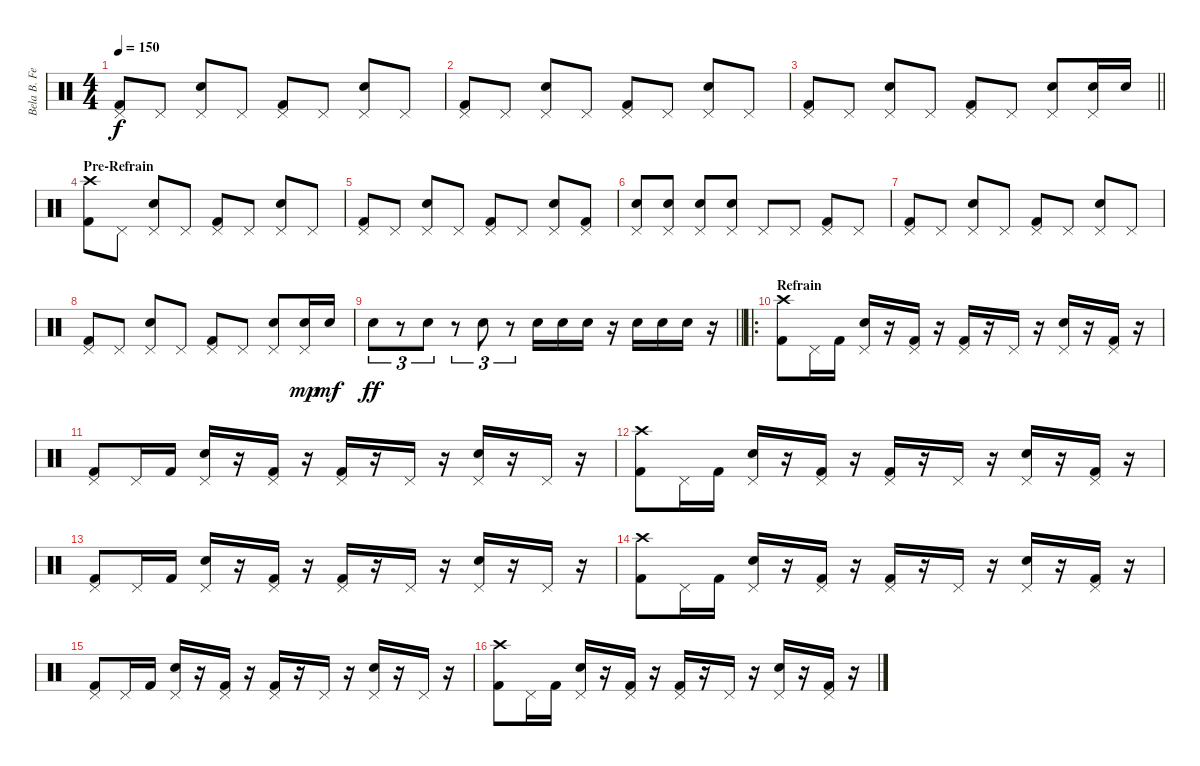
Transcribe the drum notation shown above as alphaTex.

\track ("Bela B. Felsenheimer" "Bela B. Fe") {instrument percussion}
\staff {score}
\articulation defaults
\ts (4 4)
\tempo 150
\clef neutral
\ks c
("Pedal Hi-Hat (hit)" "Kick (hit) 2").8{dy f} "Pedal Hi-Hat (hit)".8 ("Pedal Hi-Hat (hit)" "Snare (hit) 2").8 "Pedal Hi-Hat (hit)".8 ("Pedal Hi-Hat (hit)" "Kick (hit) 2").8 "Pedal Hi-Hat (hit)".8 ("Pedal Hi-Hat (hit)" "Snare (hit) 2").8 "Pedal Hi-Hat (hit)".8 |
("Pedal Hi-Hat (hit)" "Kick (hit) 2").8 "Pedal Hi-Hat (hit)".8 ("Pedal Hi-Hat (hit)" "Snare (hit) 2").8 "Pedal Hi-Hat (hit)".8 ("Pedal Hi-Hat (hit)" "Kick (hit) 2").8 "Pedal Hi-Hat (hit)".8 ("Pedal Hi-Hat (hit)" "Snare (hit) 2").8 "Pedal Hi-Hat (hit)".8 |
\barLineRight lightlight
("Pedal Hi-Hat (hit)" "Kick (hit) 2").8 "Pedal Hi-Hat (hit)".8 ("Pedal Hi-Hat (hit)" "Snare (hit) 2").8 "Pedal Hi-Hat (hit)".8 ("Pedal Hi-Hat (hit)" "Kick (hit) 2").8 "Pedal Hi-Hat (hit)".8 ("Pedal Hi-Hat (hit)" "Snare (hit) 2").8 ("Pedal Hi-Hat (hit)" "Snare (hit) 2").16 "Snare (hit) 2".16 |
\section ("" "Pre-Refrain")
("Crash high (hit)" "Kick (hit) 2").8 "Pedal Hi-Hat (hit)".8 ("Pedal Hi-Hat (hit)" "Snare (hit) 2").8 "Pedal Hi-Hat (hit)".8 ("Pedal Hi-Hat (hit)" "Kick (hit) 2").8 "Pedal Hi-Hat (hit)".8 ("Pedal Hi-Hat (hit)" "Snare (hit) 2").8 "Pedal Hi-Hat (hit)".8 |
("Pedal Hi-Hat (hit)" "Kick (hit) 2").8 "Pedal Hi-Hat (hit)".8 ("Pedal Hi-Hat (hit)" "Snare (hit) 2").8 "Pedal Hi-Hat (hit)".8 ("Pedal Hi-Hat (hit)" "Kick (hit) 2").8 "Pedal Hi-Hat (hit)".8 ("Pedal Hi-Hat (hit)" "Snare (hit) 2").8 ("Pedal Hi-Hat (hit)" "Kick (hit) 2").8 |
("Pedal Hi-Hat (hit)" "Snare (hit) 2").8 ("Pedal Hi-Hat (hit)" "Snare (hit) 2").8 ("Pedal Hi-Hat (hit)" "Snare (hit) 2").8 ("Pedal Hi-Hat (hit)" "Snare (hit) 2").8 "Pedal Hi-Hat (hit)".8 "Pedal Hi-Hat (hit)".8 ("Pedal Hi-Hat (hit)" "Kick (hit) 2").8 "Pedal Hi-Hat (hit)".8 |
("Pedal Hi-Hat (hit)" "Kick (hit) 2").8 "Pedal Hi-Hat (hit)".8 ("Pedal Hi-Hat (hit)" "Snare (hit) 2").8 "Pedal Hi-Hat (hit)".8 ("Pedal Hi-Hat (hit)" "Kick (hit) 2").8 "Pedal Hi-Hat (hit)".8 ("Pedal Hi-Hat (hit)" "Snare (hit) 2").8 "Pedal Hi-Hat (hit)".8 |
("Pedal Hi-Hat (hit)" "Kick (hit) 2").8 "Pedal Hi-Hat (hit)".8 ("Pedal Hi-Hat (hit)" "Snare (hit) 2").8 "Pedal Hi-Hat (hit)".8 ("Pedal Hi-Hat (hit)" "Kick (hit) 2").8 "Pedal Hi-Hat (hit)".8 ("Pedal Hi-Hat (hit)" "Snare (hit) 2").8 ("Pedal Hi-Hat (hit)" "Snare (hit) 2").16{dy mp} "Snare (hit) 2".16{dy mf} |
\barLineRight lightlight "Snare (hit) 2".8{tu (3 2) dy ff}
r.8{tu (3 2)} "Snare (hit) 2".8{tu (3 2)} r.8{tu (3 2)} "Snare (hit) 2".8{tu (3 2)} r.8{tu (3 2)} "Snare (hit) 2".16 "Snare (hit) 2".16 "Snare (hit) 2".16 r.16 "Snare (hit) 2".16 "Snare (hit) 2".16 "Snare (hit) 2".16 r.16 |
\ro
\section ("" "Refrain")
("Crash high (hit)" "Kick (hit) 2").8 "Pedal Hi-Hat (hit)".16 "Kick (hit) 2".16 ("Pedal Hi-Hat (hit)" "Snare (hit) 2").16 r.16 ("Pedal Hi-Hat (hit)" "Kick (hit) 2").16 r.16 ("Pedal Hi-Hat (hit)" "Kick (hit) 2").16 r.16 "Pedal Hi-Hat (hit)".16 r.16 ("Pedal Hi-Hat (hit)" "Snare (hit) 2").16 r.16 ("Pedal Hi-Hat (hit)" "Kick (hit) 2").16 r.16 |
("Pedal Hi-Hat (hit)" "Kick (hit) 2").8 "Pedal Hi-Hat (hit)".16 "Kick (hit) 2".16 ("Pedal Hi-Hat (hit)" "Snare (hit) 2").16 r.16 ("Pedal Hi-Hat (hit)" "Kick (hit) 2").16 r.16 ("Pedal Hi-Hat (hit)" "Kick (hit) 2").16 r.16 "Pedal Hi-Hat (hit)".16 r.16 ("Pedal Hi-Hat (hit)" "Snare (hit) 2").16 r.16 "Pedal Hi-Hat (hit)".16 r.16 |
("Crash high (hit)" "Kick (hit) 2").8 "Pedal Hi-Hat (hit)".16 "Kick (hit) 2".16 ("Pedal Hi-Hat (hit)" "Snare (hit) 2").16 r.16 ("Pedal Hi-Hat (hit)" "Kick (hit) 2").16 r.16 ("Pedal Hi-Hat (hit)" "Kick (hit) 2").16 r.16 "Pedal Hi-Hat (hit)".16 r.16 ("Pedal Hi-Hat (hit)" "Snare (hit) 2").16 r.16 ("Pedal Hi-Hat (hit)" "Kick (hit) 2").16 r.16 |
("Pedal Hi-Hat (hit)" "Kick (hit) 2").8 "Pedal Hi-Hat (hit)".16 "Kick (hit) 2".16 ("Pedal Hi-Hat (hit)" "Snare (hit) 2").16 r.16 ("Pedal Hi-Hat (hit)" "Kick (hit) 2").16 r.16 ("Pedal Hi-Hat (hit)" "Kick (hit) 2").16 r.16 "Pedal Hi-Hat (hit)".16 r.16 ("Pedal Hi-Hat (hit)" "Snare (hit) 2").16 r.16 "Pedal Hi-Hat (hit)".16 r.16 |
("Crash high (hit)" "Kick (hit) 2").8 "Pedal Hi-Hat (hit)".16 "Kick (hit) 2".16 ("Pedal Hi-Hat (hit)" "Snare (hit) 2").16 r.16 ("Pedal Hi-Hat (hit)" "Kick (hit) 2").16 r.16 ("Pedal Hi-Hat (hit)" "Kick (hit) 2").16 r.16 "Pedal Hi-Hat (hit)".16 r.16 ("Pedal Hi-Hat (hit)" "Snare (hit) 2").16 r.16 ("Pedal Hi-Hat (hit)" "Kick (hit) 2").16 r.16 |
("Pedal Hi-Hat (hit)" "Kick (hit) 2").8 "Pedal Hi-Hat (hit)".16 "Kick (hit) 2".16 ("Pedal Hi-Hat (hit)" "Snare (hit) 2").16 r.16 ("Pedal Hi-Hat (hit)" "Kick (hit) 2").16 r.16 ("Pedal Hi-Hat (hit)" "Kick (hit) 2").16 r.16 "Pedal Hi-Hat (hit)".16 r.16 ("Pedal Hi-Hat (hit)" "Snare (hit) 2").16 r.16 "Pedal Hi-Hat (hit)".16 r.16 |
("Crash high (hit)" "Kick (hit) 2").8 "Pedal Hi-Hat (hit)".16 "Kick (hit) 2".16 ("Pedal Hi-Hat (hit)" "Snare (hit) 2").16 r.16 ("Pedal Hi-Hat (hit)" "Kick (hit) 2").16 r.16 ("Pedal Hi-Hat (hit)" "Kick (hit) 2").16 r.16 "Pedal Hi-Hat (hit)".16 r.16 ("Pedal Hi-Hat (hit)" "Snare (hit) 2").16 r.16 ("Pedal Hi-Hat (hit)" "Kick (hit) 2").16 r.16
